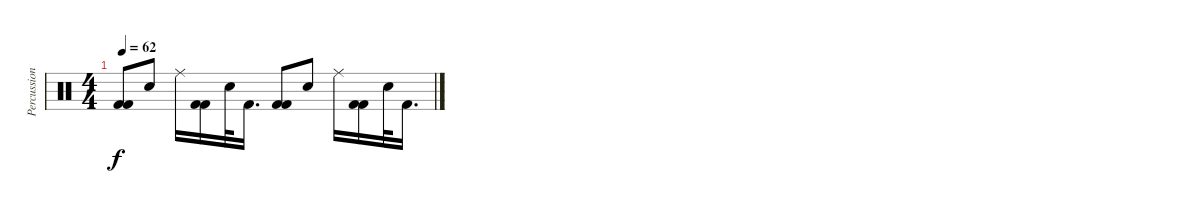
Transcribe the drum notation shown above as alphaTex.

\track ("Percussion" "Percussion") {instrument percussion}
\staff {score}
\articulation defaults
\ts (4 4)
\tempo 62
\clef neutral
\ks c
("Kick (hit) 2" "Kick (hit) 2").8{dy f} "Electric Snare (hit)".8 "Ride (middle)".16 ("Kick (hit) 2" "Kick (hit) 2").16 "Electric Snare (hit)".32 "Kick (hit) 2".16{d} ("Kick (hit) 2" "Kick (hit) 2").8 "Electric Snare (hit)".8 "Ride (middle)".16 ("Kick (hit) 2" "Kick (hit) 2").16 "Electric Snare (hit)".32 "Kick (hit) 2".16{d}
